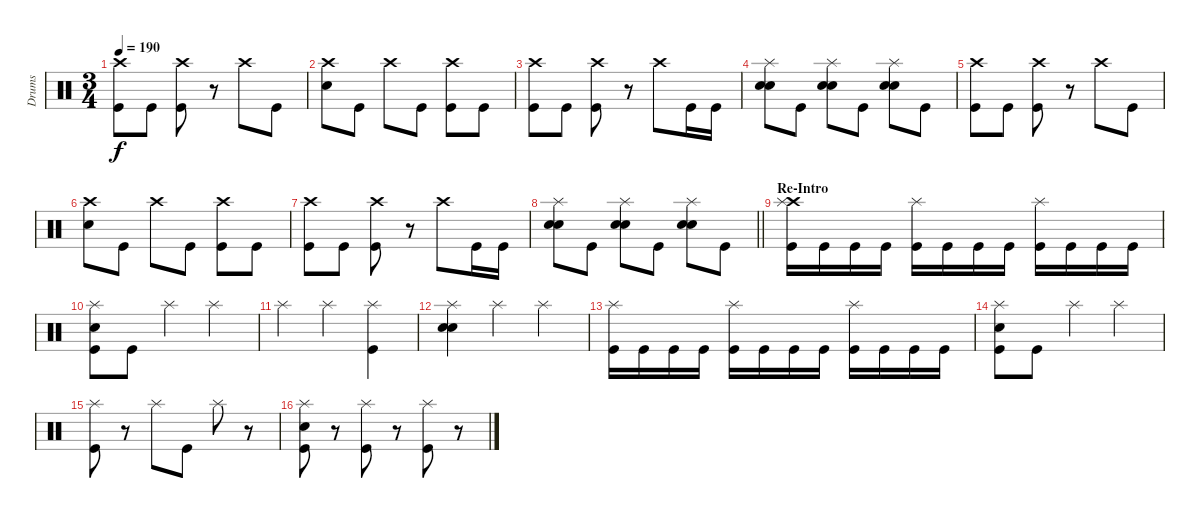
\track ("Drums" "Drums") {instrument percussion}
\staff {score}
\articulation defaults
\ts (3 4)
\tempo 190
\clef neutral
\ks c
("Crash high (hit)" "Kick (hit)").8{dy f} "Kick (hit)".8 ("Kick (hit)" "Crash high (hit)").8 r.8 "Crash high (hit)".8 "Kick (hit)".8 |
("Crash high (hit)" "Snare (hit) 2").8 "Kick (hit)".8 "Crash high (hit)".8 "Kick (hit)".8 ("Kick (hit)" "Crash high (hit)").8 "Kick (hit)".8 |
("Crash high (hit)" "Kick (hit)").8 "Kick (hit)".8 ("Kick (hit)" "Crash high (hit)").8 r.8 "Crash high (hit)".8 "Kick (hit)".16 "Kick (hit)".16 |
("Snare (hit) 2" "Snare (hit) 2" "Splash (hit)").8 "Kick (hit)".8 ("Snare (hit) 2" "Snare (hit) 2" "Splash (hit)").8 "Kick (hit)".8 ("Snare (hit) 2" "Snare (hit) 2" "Splash (hit)").8 "Kick (hit)".8 |
("Crash high (hit)" "Kick (hit)").8 "Kick (hit)".8 ("Kick (hit)" "Crash high (hit)").8 r.8 "Crash high (hit)".8 "Kick (hit)".8 |
("Crash high (hit)" "Snare (hit) 2").8 "Kick (hit)".8 "Crash high (hit)".8 "Kick (hit)".8 ("Kick (hit)" "Crash high (hit)").8 "Kick (hit)".8 |
("Crash high (hit)" "Kick (hit)").8 "Kick (hit)".8 ("Kick (hit)" "Crash high (hit)").8 r.8 "Crash high (hit)".8 "Kick (hit)".16 "Kick (hit)".16 |
\barLineRight lightlight
("Snare (hit) 2" "Snare (hit) 2" "Splash (hit)").8 "Kick (hit)".8 ("Snare (hit) 2" "Snare (hit) 2" "Splash (hit)").8 "Kick (hit)".8 ("Snare (hit) 2" "Snare (hit) 2" "Splash (hit)").8 "Kick (hit)".8 |
\section ("" "Re-Intro")
("Kick (hit)" "Crash high (hit)" "Splash (hit)").16 "Kick (hit)".16 "Kick (hit)".16 "Kick (hit)".16 ("Kick (hit)" "Splash (hit)").16 "Kick (hit)".16 "Kick (hit)".16 "Kick (hit)".16 ("Kick (hit)" "Splash (hit)").16 "Kick (hit)".16 "Kick (hit)".16 "Kick (hit)".16 |
("Kick (hit)" "Splash (hit)" "Snare (hit) 2").8 "Kick (hit)".8 "Splash (hit)".4 "Splash (hit)".4 |
"Splash (hit)".4 "Splash (hit)".4 ("Kick (hit)" "Splash (hit)").4 |
("Splash (hit)" "Snare (hit) 2" "Snare (hit) 2").4 "Splash (hit)".4 "Splash (hit)".4 |
("Kick (hit)" "Splash (hit)").16 "Kick (hit)".16 "Kick (hit)".16 "Kick (hit)".16 ("Kick (hit)" "Splash (hit)").16 "Kick (hit)".16 "Kick (hit)".16 "Kick (hit)".16 ("Kick (hit)" "Splash (hit)").16 "Kick (hit)".16 "Kick (hit)".16 "Kick (hit)".16 |
("Kick (hit)" "Splash (hit)" "Snare (hit) 2").8 "Kick (hit)".8 "Splash (hit)".4 "Splash (hit)".4 |
("Kick (hit)" "Splash (hit)").8 r.8 "Splash (hit)".8 "Kick (hit)".8 "Splash (hit)".8 r.8 |
("Kick (hit)" "Splash (hit)" "Snare (hit) 2").8 r.8 ("Kick (hit)" "Splash (hit)").8 r.8 ("Kick (hit)" "Splash (hit)").8 r.8
